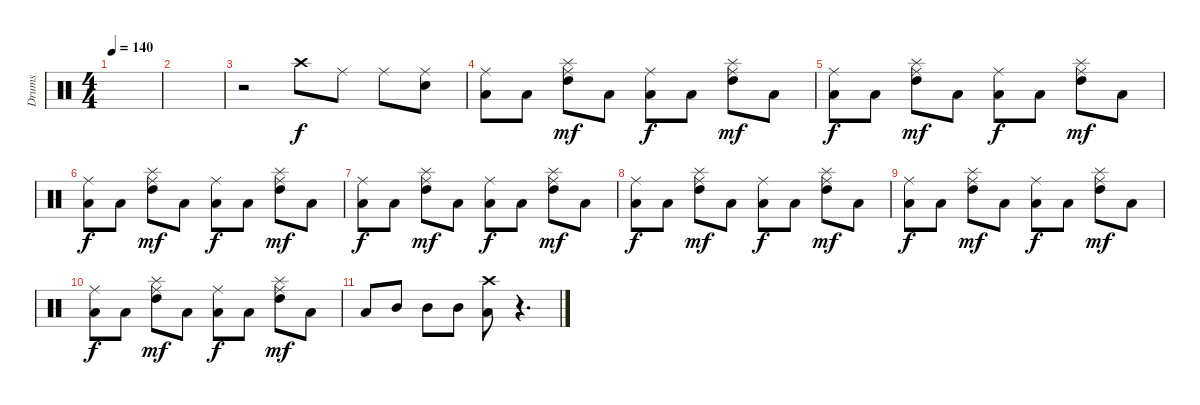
\track ("Drums" "Drums") {instrument percussion}
\staff {score}
\articulation defaults
\ts (4 4)
\tempo 140
\clef neutral
\ks c
|
|
r.2 "Crash high (hit)".8 "Ride (middle)".8 "Ride (middle)".8 ("Ride (middle)" "Snare (hit)").8 |
("Ride (middle)" "Low Tom (hit)").8 "Low Tom (hit)".8 ("Ride (middle)" "High Tom (hit)" "Splash (hit)").8{dy mf} "Low Tom (hit)".8 ("Ride (middle)" "Low Tom (hit)").8{dy f} "Low Tom (hit)".8 ("Ride (middle)" "High Tom (hit)" "Splash (hit)").8{dy mf} "Low Tom (hit)".8 |
("Ride (middle)" "Low Tom (hit)").8{dy f} "Low Tom (hit)".8 ("Ride (middle)" "High Tom (hit)" "Splash (hit)").8{dy mf} "Low Tom (hit)".8 ("Ride (middle)" "Low Tom (hit)").8{dy f} "Low Tom (hit)".8 ("Ride (middle)" "High Tom (hit)" "Splash (hit)").8{dy mf} "Low Tom (hit)".8 |
("Ride (middle)" "Low Tom (hit)").8{dy f} "Low Tom (hit)".8 ("Ride (middle)" "High Tom (hit)" "Splash (hit)").8{dy mf} "Low Tom (hit)".8 ("Ride (middle)" "Low Tom (hit)").8{dy f} "Low Tom (hit)".8 ("Ride (middle)" "High Tom (hit)" "Splash (hit)").8{dy mf} "Low Tom (hit)".8 |
("Ride (middle)" "Low Tom (hit)").8{dy f} "Low Tom (hit)".8 ("Ride (middle)" "High Tom (hit)" "Splash (hit)").8{dy mf} "Low Tom (hit)".8 ("Ride (middle)" "Low Tom (hit)").8{dy f} "Low Tom (hit)".8 ("Ride (middle)" "High Tom (hit)" "Splash (hit)").8{dy mf} "Low Tom (hit)".8 |
("Ride (middle)" "Low Tom (hit)").8{dy f} "Low Tom (hit)".8 ("Ride (middle)" "High Tom (hit)" "Splash (hit)").8{dy mf} "Low Tom (hit)".8 ("Ride (middle)" "Low Tom (hit)").8{dy f} "Low Tom (hit)".8 ("Ride (middle)" "High Tom (hit)" "Splash (hit)").8{dy mf} "Low Tom (hit)".8 |
("Ride (middle)" "Low Tom (hit)").8{dy f} "Low Tom (hit)".8 ("Ride (middle)" "High Tom (hit)" "Splash (hit)").8{dy mf} "Low Tom (hit)".8 ("Ride (middle)" "Low Tom (hit)").8{dy f} "Low Tom (hit)".8 ("Ride (middle)" "High Tom (hit)" "Splash (hit)").8{dy mf} "Low Tom (hit)".8 |
("Ride (middle)" "Low Tom (hit)").8{dy f} "Low Tom (hit)".8 ("Ride (middle)" "High Tom (hit)" "Splash (hit)").8{dy mf} "Low Tom (hit)".8 ("Ride (middle)" "Low Tom (hit)").8{dy f} "Low Tom (hit)".8 ("Ride (middle)" "High Tom (hit)" "Splash (hit)").8{dy mf} "Low Tom (hit)".8 |
"Low Tom (hit)".8 "Mid Tom (hit)".8 "Mid Tom (hit)".8 "Mid Tom (hit)".8 ("Crash high (hit)" "Low Tom (hit)").8 r.4{d}
